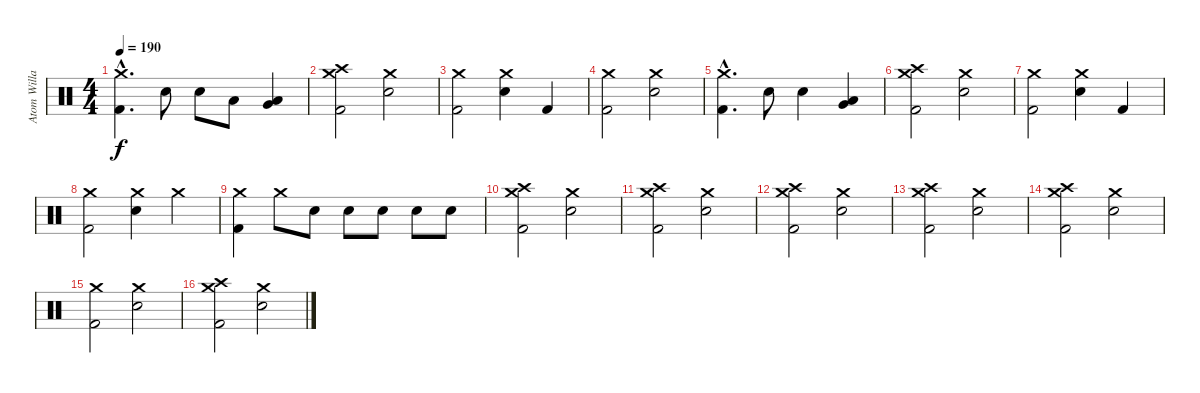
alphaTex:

\track ("Atom Willard" "Atom Willa") {instrument percussion}
\staff {score}
\articulation defaults
\ts (4 4)
\tempo 190
\clef neutral
\ks c
("Crash medium (hit)"{hac} "Kick (hit) 2"{hac}).4{d dy f} "Electric Snare (hit)".8 "Electric Snare (hit)".8 "Low Tom (hit)".8 ("Very Low Tom (hit)" "Low Floor Tom (hit)").4 |
("Crash high (hit)" "Crash medium (hit)" "Kick (hit) 2").2 ("Crash medium (hit)" "Electric Snare (hit)").2 |
("Crash medium (hit)" "Kick (hit) 2").2 ("Crash medium (hit)" "Electric Snare (hit)").4 "Kick (hit) 2".4 |
("Crash medium (hit)" "Kick (hit) 2").2 ("Crash medium (hit)" "Electric Snare (hit)").2 |
("Crash medium (hit)"{hac} "Kick (hit) 2"{hac}).4{d} "Electric Snare (hit)".8 "Electric Snare (hit)".4 ("Very Low Tom (hit)" "Low Floor Tom (hit)").4 |
("Crash high (hit)" "Crash medium (hit)" "Kick (hit) 2").2 ("Crash medium (hit)" "Electric Snare (hit)").2 |
("Crash medium (hit)" "Kick (hit) 2").2 ("Crash medium (hit)" "Electric Snare (hit)").4 "Kick (hit) 2".4 |
("Crash medium (hit)" "Kick (hit) 2").2 ("Crash medium (hit)" "Electric Snare (hit)").4 "Crash medium (hit)".4 |
("Crash medium (hit)" "Kick (hit) 2").4 "Crash medium (hit)".8 "Electric Snare (hit)".8 "Electric Snare (hit)".8 "Electric Snare (hit)".8 "Electric Snare (hit)".8 "Electric Snare (hit)".8 |
("Crash high (hit)" "Crash medium (hit)" "Kick (hit) 2").2 ("Crash medium (hit)" "Electric Snare (hit)").2 |
("Crash high (hit)" "Crash medium (hit)" "Kick (hit) 2").2 ("Crash medium (hit)" "Electric Snare (hit)").2 |
("Crash high (hit)" "Crash medium (hit)" "Kick (hit) 2").2 ("Crash medium (hit)" "Electric Snare (hit)").2 |
("Crash high (hit)" "Crash medium (hit)" "Kick (hit) 2").2 ("Crash medium (hit)" "Electric Snare (hit)").2 |
("Crash high (hit)" "Crash medium (hit)" "Kick (hit) 2").2 ("Crash medium (hit)" "Electric Snare (hit)").2 |
("Crash medium (hit)" "Kick (hit) 2").2 ("Crash medium (hit)" "Electric Snare (hit)").2 |
("Crash high (hit)" "Crash medium (hit)" "Kick (hit) 2").2 ("Crash medium (hit)" "Electric Snare (hit)").2
